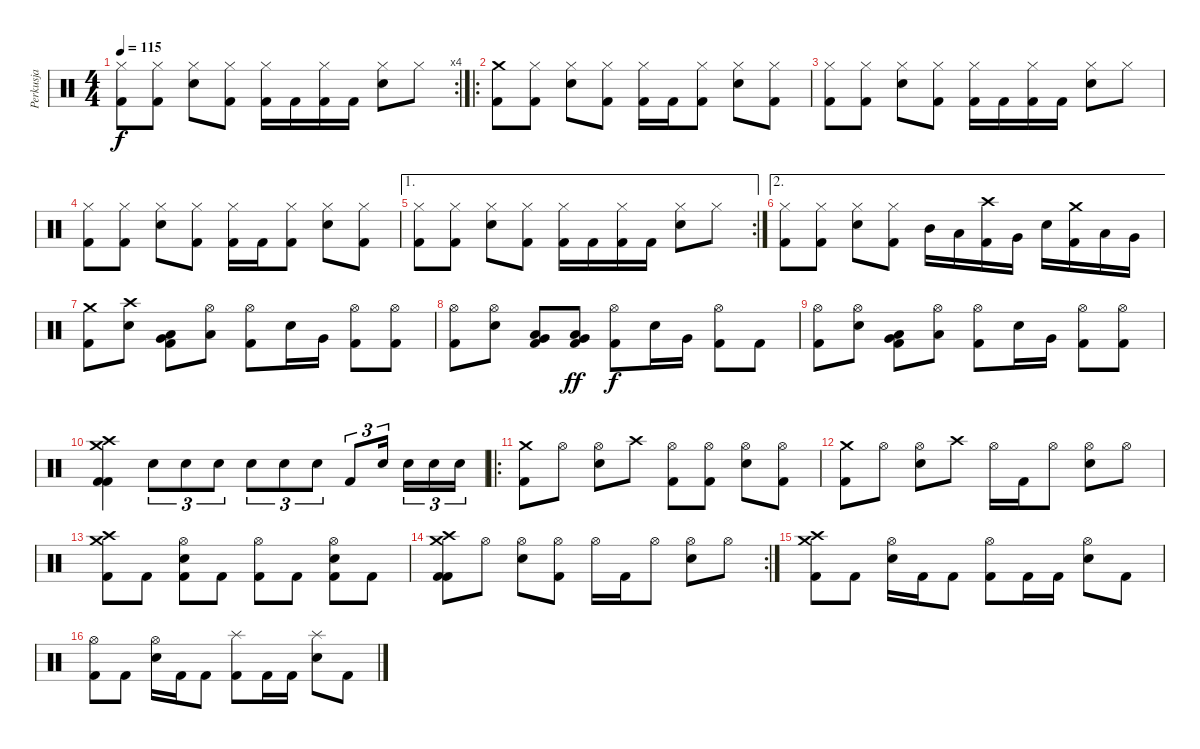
\track ("Perkusja" "Perkusja") {instrument percussion}
\staff {score}
\articulation defaults
\rc 4
\ts (4 4)
\tempo 115
\clef neutral
\ks c
("Hi-Hat (closed)" "Kick (hit) 2").8{dy f} ("Hi-Hat (closed)" "Kick (hit) 2").8 ("Hi-Hat (closed)" "Snare (hit) 2").8 ("Hi-Hat (closed)" "Kick (hit) 2").8 ("Hi-Hat (closed)" "Kick (hit) 2").16 "Kick (hit) 2".16 ("Hi-Hat (closed)" "Kick (hit) 2").16 "Kick (hit) 2".16 ("Hi-Hat (closed)" "Snare (hit) 2").8 "Hi-Hat (closed)".8 |
\ro
("Crash medium (hit)" "Kick (hit) 2").8 ("Hi-Hat (closed)" "Kick (hit) 2").8 ("Hi-Hat (closed)" "Snare (hit) 2").8 ("Hi-Hat (closed)" "Kick (hit) 2").8 ("Hi-Hat (closed)" "Kick (hit) 2").16 "Kick (hit) 2".16 ("Hi-Hat (closed)" "Kick (hit) 2").8 ("Hi-Hat (closed)" "Snare (hit) 2").8 ("Hi-Hat (closed)" "Kick (hit) 2").8 |
("Hi-Hat (closed)" "Kick (hit) 2").8 ("Hi-Hat (closed)" "Kick (hit) 2").8 ("Hi-Hat (closed)" "Snare (hit) 2").8 ("Hi-Hat (closed)" "Kick (hit) 2").8 ("Hi-Hat (closed)" "Kick (hit) 2").16 "Kick (hit) 2".16 ("Hi-Hat (closed)" "Kick (hit) 2").16 "Kick (hit) 2".16 ("Hi-Hat (closed)" "Snare (hit) 2").8 "Hi-Hat (closed)".8 |
("Hi-Hat (closed)" "Kick (hit) 2").8 ("Hi-Hat (closed)" "Kick (hit) 2").8 ("Hi-Hat (closed)" "Snare (hit) 2").8 ("Hi-Hat (closed)" "Kick (hit) 2").8 ("Hi-Hat (closed)" "Kick (hit) 2").16 "Kick (hit) 2".16 ("Hi-Hat (closed)" "Kick (hit) 2").8 ("Hi-Hat (closed)" "Snare (hit) 2").8 ("Hi-Hat (closed)" "Kick (hit) 2").8 |
\ae 1
\rc 2
("Hi-Hat (closed)" "Kick (hit) 2").8 ("Hi-Hat (closed)" "Kick (hit) 2").8 ("Hi-Hat (closed)" "Snare (hit) 2").8 ("Hi-Hat (closed)" "Kick (hit) 2").8 ("Hi-Hat (closed)" "Kick (hit) 2").16 "Kick (hit) 2".16 ("Hi-Hat (closed)" "Kick (hit) 2").16 "Kick (hit) 2".16 ("Hi-Hat (closed)" "Snare (hit) 2").8 "Hi-Hat (closed)".8 |
\ae 2
("Hi-Hat (closed)" "Kick (hit) 2").8 ("Hi-Hat (closed)" "Kick (hit) 2").8 ("Hi-Hat (closed)" "Snare (hit) 2").8 ("Hi-Hat (closed)" "Kick (hit) 2").8 "Mid Tom (hit)".16 "Low Tom (hit)".16 ("Crash high (hit)" "Kick (hit) 2").16 "Very Low Tom (hit)".16 "Snare (hit) 2".16 ("Crash medium (hit)" "Kick (hit) 2").16 "Low Tom (hit)".16 "Very Low Tom (hit)".16 |
("Crash medium (hit)" "Kick (hit) 2").8 ("Crash high (hit)" "Snare (hit) 2").8 ("Very Low Tom (hit)" "Low Tom (hit)" "Kick (hit) 2").8 ("Hi-Hat (open)" "Low Tom (hit)").8 ("Hi-Hat (open)" "Kick (hit) 2").8 "Snare (hit) 2".16 "Very Low Tom (hit)".16 ("Hi-Hat (open)" "Kick (hit) 2").8 ("Hi-Hat (open)" "Kick (hit) 2").8 |
("Hi-Hat (open)" "Kick (hit) 2").8 ("Hi-Hat (open)" "Snare (hit) 2").8 ("Very Low Tom (hit)" "Low Tom (hit)" "Kick (hit) 2").8 ("Very Low Tom (hit)" "Low Tom (hit)" "Kick (hit) 2").8{dy ff} ("Hi-Hat (open)" "Kick (hit) 2").8{dy f} "Snare (hit) 2".16 "Very Low Tom (hit)".16 ("Hi-Hat (open)" "Kick (hit) 2").8 "Kick (hit) 2".8 |
("Hi-Hat (open)" "Kick (hit) 2").8 ("Hi-Hat (open)" "Snare (hit) 2").8 ("Very Low Tom (hit)" "Low Tom (hit)" "Kick (hit) 2").8 ("Hi-Hat (open)" "Low Tom (hit)").8 ("Hi-Hat (open)" "Kick (hit) 2").8 "Snare (hit) 2".16 "Very Low Tom (hit)".16 ("Hi-Hat (open)" "Kick (hit) 2").8 ("Hi-Hat (open)" "Kick (hit) 2").8 |
("Crash medium (hit)" "Crash high (hit)" "Kick (hit) 2" "Kick (hit) 2").4 "Snare (hit) 2".8{tu (3 2)} "Snare (hit) 2".8{tu (3 2)} "Snare (hit) 2".8{tu (3 2)} "Snare (hit) 2".8{tu (3 2)} "Snare (hit) 2".8{tu (3 2)} "Snare (hit) 2".8{tu (3 2)} "Kick (hit) 2".8{tu (3 2)} "Snare (hit) 2".16{tu (3 2)} "Snare (hit) 2".16{tu (3 2)} "Snare (hit) 2".16{tu (3 2)} "Snare (hit) 2".16{tu (3 2)} |
\ro
("Crash medium (hit)" "Kick (hit) 2").8 "Hi-Hat (open)".8 ("Hi-Hat (open)" "Snare (hit) 2").8 "Crash high (hit)".8 ("Hi-Hat (open)" "Kick (hit) 2").8 ("Hi-Hat (open)" "Kick (hit) 2").8 ("Hi-Hat (open)" "Snare (hit) 2").8 ("Hi-Hat (open)" "Kick (hit) 2").8 |
("Crash medium (hit)" "Kick (hit) 2").8 "Hi-Hat (open)".8 ("Hi-Hat (open)" "Snare (hit) 2").8 "Crash high (hit)".8 "Hi-Hat (open)".16 "Kick (hit) 2".16 "Hi-Hat (open)".8 ("Hi-Hat (open)" "Snare (hit) 2").8 "Hi-Hat (open)".8 |
("Crash medium (hit)" "Crash high (hit)" "Kick (hit) 2").8 "Kick (hit) 2".8 ("Hi-Hat (open)" "Snare (hit) 2" "Kick (hit) 2").8 "Kick (hit) 2".8 ("Hi-Hat (open)" "Kick (hit) 2").8 "Kick (hit) 2".8 ("Hi-Hat (open)" "Snare (hit) 2" "Kick (hit) 2").8 "Kick (hit) 2".8 |
\rc 2
("Crash medium (hit)" "Crash high (hit)" "Kick (hit) 2" "Kick (hit) 2").8 "Hi-Hat (open)".8 ("Hi-Hat (open)" "Snare (hit) 2").8 ("Hi-Hat (open)" "Kick (hit) 2").8 "Hi-Hat (open)".16 "Kick (hit) 2".16 "Hi-Hat (open)".8 ("Hi-Hat (open)" "Snare (hit) 2").8 "Hi-Hat (open)".8 |
("Crash medium (hit)" "Crash high (hit)" "Kick (hit) 2").8 "Kick (hit) 2".8 ("Hi-Hat (open)" "Snare (hit) 2").16 "Kick (hit) 2".16 "Kick (hit) 2".8 ("Hi-Hat (open)" "Kick (hit) 2").8 "Kick (hit) 2".16 "Kick (hit) 2".16 ("Hi-Hat (open)" "Snare (hit) 2").8 "Kick (hit) 2".8 |
("Hi-Hat (open)" "Kick (hit) 2").8 "Kick (hit) 2".8 ("Hi-Hat (open)" "Snare (hit) 2").16 "Kick (hit) 2".16 "Kick (hit) 2".8 ("Splash (hit)" "Kick (hit) 2").8 "Kick (hit) 2".16 "Kick (hit) 2".16 ("Splash (hit)" "Snare (hit) 2").8 "Kick (hit) 2".8
